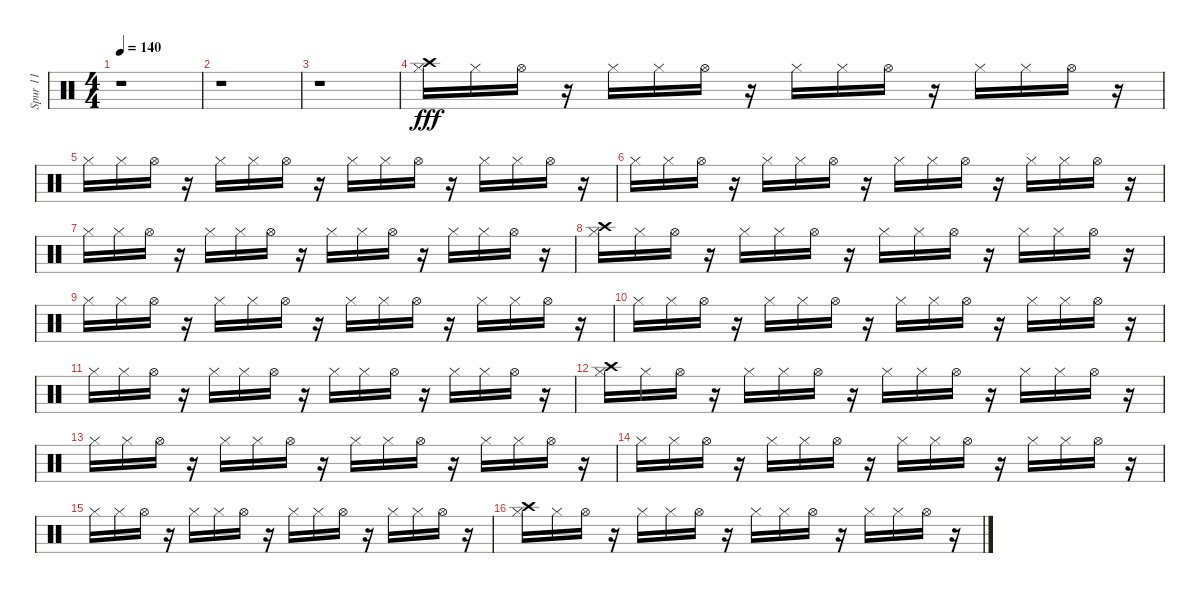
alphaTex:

\track ("Spur 11" "Spur 11") {instrument percussion}
\staff {score}
\articulation defaults
\ts (4 4)
\tempo 140
\clef neutral
\ks c
r.1{dy fff} |
r.1 |
r.1 |
("Crash high (hit)" "Hi-Hat (closed)").16 "Hi-Hat (closed)".16 "Hi-Hat (open)".16 r.16 "Hi-Hat (closed)".16 "Hi-Hat (closed)".16 "Hi-Hat (open)".16 r.16 "Hi-Hat (closed)".16 "Hi-Hat (closed)".16 "Hi-Hat (open)".16 r.16 "Hi-Hat (closed)".16 "Hi-Hat (closed)".16 "Hi-Hat (open)".16 r.16 |
"Hi-Hat (closed)".16 "Hi-Hat (closed)".16 "Hi-Hat (open)".16 r.16 "Hi-Hat (closed)".16 "Hi-Hat (closed)".16 "Hi-Hat (open)".16 r.16 "Hi-Hat (closed)".16 "Hi-Hat (closed)".16 "Hi-Hat (open)".16 r.16 "Hi-Hat (closed)".16 "Hi-Hat (closed)".16 "Hi-Hat (open)".16 r.16 |
"Hi-Hat (closed)".16 "Hi-Hat (closed)".16 "Hi-Hat (open)".16 r.16 "Hi-Hat (closed)".16 "Hi-Hat (closed)".16 "Hi-Hat (open)".16 r.16 "Hi-Hat (closed)".16 "Hi-Hat (closed)".16 "Hi-Hat (open)".16 r.16 "Hi-Hat (closed)".16 "Hi-Hat (closed)".16 "Hi-Hat (open)".16 r.16 |
"Hi-Hat (closed)".16 "Hi-Hat (closed)".16 "Hi-Hat (open)".16 r.16 "Hi-Hat (closed)".16 "Hi-Hat (closed)".16 "Hi-Hat (open)".16 r.16 "Hi-Hat (closed)".16 "Hi-Hat (closed)".16 "Hi-Hat (open)".16 r.16 "Hi-Hat (closed)".16 "Hi-Hat (closed)".16 "Hi-Hat (open)".16 r.16 |
("Hi-Hat (closed)" "Crash high (hit)").16 "Hi-Hat (closed)".16 "Hi-Hat (open)".16 r.16 "Hi-Hat (closed)".16 "Hi-Hat (closed)".16 "Hi-Hat (open)".16 r.16 "Hi-Hat (closed)".16 "Hi-Hat (closed)".16 "Hi-Hat (open)".16 r.16 "Hi-Hat (closed)".16 "Hi-Hat (closed)".16 "Hi-Hat (open)".16 r.16 |
"Hi-Hat (closed)".16 "Hi-Hat (closed)".16 "Hi-Hat (open)".16 r.16 "Hi-Hat (closed)".16 "Hi-Hat (closed)".16 "Hi-Hat (open)".16 r.16 "Hi-Hat (closed)".16 "Hi-Hat (closed)".16 "Hi-Hat (open)".16 r.16 "Hi-Hat (closed)".16 "Hi-Hat (closed)".16 "Hi-Hat (open)".16 r.16 |
"Hi-Hat (closed)".16 "Hi-Hat (closed)".16 "Hi-Hat (open)".16 r.16 "Hi-Hat (closed)".16 "Hi-Hat (closed)".16 "Hi-Hat (open)".16 r.16 "Hi-Hat (closed)".16 "Hi-Hat (closed)".16 "Hi-Hat (open)".16 r.16 "Hi-Hat (closed)".16 "Hi-Hat (closed)".16 "Hi-Hat (open)".16 r.16 |
"Hi-Hat (closed)".16 "Hi-Hat (closed)".16 "Hi-Hat (open)".16 r.16 "Hi-Hat (closed)".16 "Hi-Hat (closed)".16 "Hi-Hat (open)".16 r.16 "Hi-Hat (closed)".16 "Hi-Hat (closed)".16 "Hi-Hat (open)".16 r.16 "Hi-Hat (closed)".16 "Hi-Hat (closed)".16 "Hi-Hat (open)".16 r.16 |
("Hi-Hat (closed)" "Crash high (hit)").16 "Hi-Hat (closed)".16 "Hi-Hat (open)".16 r.16 "Hi-Hat (closed)".16 "Hi-Hat (closed)".16 "Hi-Hat (open)".16 r.16 "Hi-Hat (closed)".16 "Hi-Hat (closed)".16 "Hi-Hat (open)".16 r.16 "Hi-Hat (closed)".16 "Hi-Hat (closed)".16 "Hi-Hat (open)".16 r.16 |
"Hi-Hat (closed)".16 "Hi-Hat (closed)".16 "Hi-Hat (open)".16 r.16 "Hi-Hat (closed)".16 "Hi-Hat (closed)".16 "Hi-Hat (open)".16 r.16 "Hi-Hat (closed)".16 "Hi-Hat (closed)".16 "Hi-Hat (open)".16 r.16 "Hi-Hat (closed)".16 "Hi-Hat (closed)".16 "Hi-Hat (open)".16 r.16 |
"Hi-Hat (closed)".16 "Hi-Hat (closed)".16 "Hi-Hat (open)".16 r.16 "Hi-Hat (closed)".16 "Hi-Hat (closed)".16 "Hi-Hat (open)".16 r.16 "Hi-Hat (closed)".16 "Hi-Hat (closed)".16 "Hi-Hat (open)".16 r.16 "Hi-Hat (closed)".16 "Hi-Hat (closed)".16 "Hi-Hat (open)".16 r.16 |
"Hi-Hat (closed)".16 "Hi-Hat (closed)".16 "Hi-Hat (open)".16 r.16 "Hi-Hat (closed)".16 "Hi-Hat (closed)".16 "Hi-Hat (open)".16 r.16 "Hi-Hat (closed)".16 "Hi-Hat (closed)".16 "Hi-Hat (open)".16 r.16 "Hi-Hat (closed)".16 "Hi-Hat (closed)".16 "Hi-Hat (open)".16 r.16 |
("Hi-Hat (closed)" "Crash high (hit)").16 "Hi-Hat (closed)".16 "Hi-Hat (open)".16 r.16 "Hi-Hat (closed)".16 "Hi-Hat (closed)".16 "Hi-Hat (open)".16 r.16 "Hi-Hat (closed)".16 "Hi-Hat (closed)".16 "Hi-Hat (open)".16 r.16 "Hi-Hat (closed)".16 "Hi-Hat (closed)".16 "Hi-Hat (open)".16 r.16
